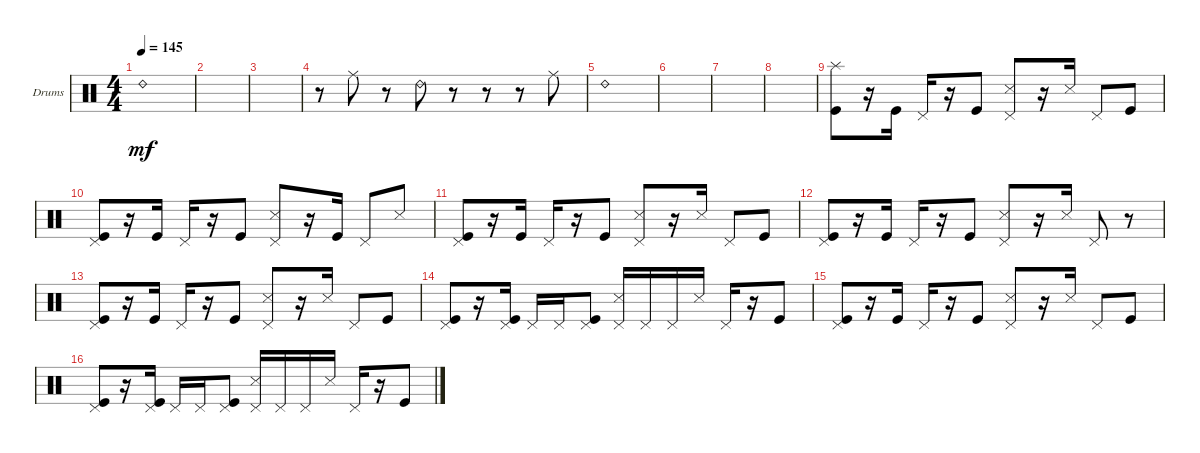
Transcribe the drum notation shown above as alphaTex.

\bracketExtendMode groupsimilarinstruments
\firstSystemTrackNameOrientation horizontal
\otherSystemsTrackNameOrientation horizontal
\track ("Drumkit" "Drums") {instrument percussion}
\staff {score}
\articulation defaults
\ts (4 4)
\tempo 145
\clef neutral
\ks c "Ride (bell) 2".1{dy mf}
|
|
|
r.8 "Ride (middle)".8 r.8 "Ride (bell) 2".8 r.8 r.8 r.8 "Ride (middle)".8 |
"Ride (bell) 2".1 |
|
|
|
("Splash (hit)" "Kick (hit)").8 r.16 "Kick (hit)".16 "Pedal Hi-Hat (hit)".16 r.16 "Kick (hit)".8 ("Pedal Hi-Hat (hit)" "Snare (side stick) 3").8 r.16 "Snare (side stick) 3".16 "Pedal Hi-Hat (hit)".8 "Kick (hit)".8 |
("Kick (hit)" "Pedal Hi-Hat (hit)").8 r.16 "Kick (hit)".16 "Pedal Hi-Hat (hit)".16 r.16 "Kick (hit)".8 ("Pedal Hi-Hat (hit)" "Snare (side stick) 3").8 r.16 "Kick (hit)".16 "Pedal Hi-Hat (hit)".8 "Snare (side stick) 3".8 |
("Kick (hit)" "Pedal Hi-Hat (hit)").8 r.16 "Kick (hit)".16 "Pedal Hi-Hat (hit)".16 r.16 "Kick (hit)".8 ("Pedal Hi-Hat (hit)" "Snare (side stick) 3").8 r.16 "Snare (side stick) 3".16 "Pedal Hi-Hat (hit)".8 "Kick (hit)".8 |
("Kick (hit)" "Pedal Hi-Hat (hit)").8 r.16 "Kick (hit)".16 "Pedal Hi-Hat (hit)".16 r.16 "Kick (hit)".8 ("Pedal Hi-Hat (hit)" "Snare (side stick) 3").8 r.16 "Snare (side stick) 3".16 "Pedal Hi-Hat (hit)".8 r.8 |
("Kick (hit)" "Pedal Hi-Hat (hit)").8 r.16 "Kick (hit)".16 "Pedal Hi-Hat (hit)".16 r.16 "Kick (hit)".8 ("Pedal Hi-Hat (hit)" "Snare (side stick) 3").8 r.16 "Snare (side stick) 3".16 "Pedal Hi-Hat (hit)".8 "Kick (hit)".8 |
("Kick (hit)" "Pedal Hi-Hat (hit)").8 r.16 ("Kick (hit)" "Pedal Hi-Hat (hit)").16 "Pedal Hi-Hat (hit)".16 "Pedal Hi-Hat (hit)".16 ("Kick (hit)" "Pedal Hi-Hat (hit)").8 ("Snare (side stick) 3" "Pedal Hi-Hat (hit)").16 "Pedal Hi-Hat (hit)".16 "Pedal Hi-Hat (hit)".16 "Snare (side stick) 3".16 "Pedal Hi-Hat (hit)".16 r.16 "Kick (hit)".8 |
("Kick (hit)" "Pedal Hi-Hat (hit)").8 r.16 "Kick (hit)".16 "Pedal Hi-Hat (hit)".16 r.16 "Kick (hit)".8 ("Pedal Hi-Hat (hit)" "Snare (side stick) 3").8 r.16 "Snare (side stick) 3".16 "Pedal Hi-Hat (hit)".8 "Kick (hit)".8 |
("Kick (hit)" "Pedal Hi-Hat (hit)").8 r.16 ("Kick (hit)" "Pedal Hi-Hat (hit)").16 "Pedal Hi-Hat (hit)".16 "Pedal Hi-Hat (hit)".16 ("Kick (hit)" "Pedal Hi-Hat (hit)").8 ("Snare (side stick) 3" "Pedal Hi-Hat (hit)").16 "Pedal Hi-Hat (hit)".16 "Pedal Hi-Hat (hit)".16 "Snare (side stick) 3".16 "Pedal Hi-Hat (hit)".16 r.16 "Kick (hit)".8
